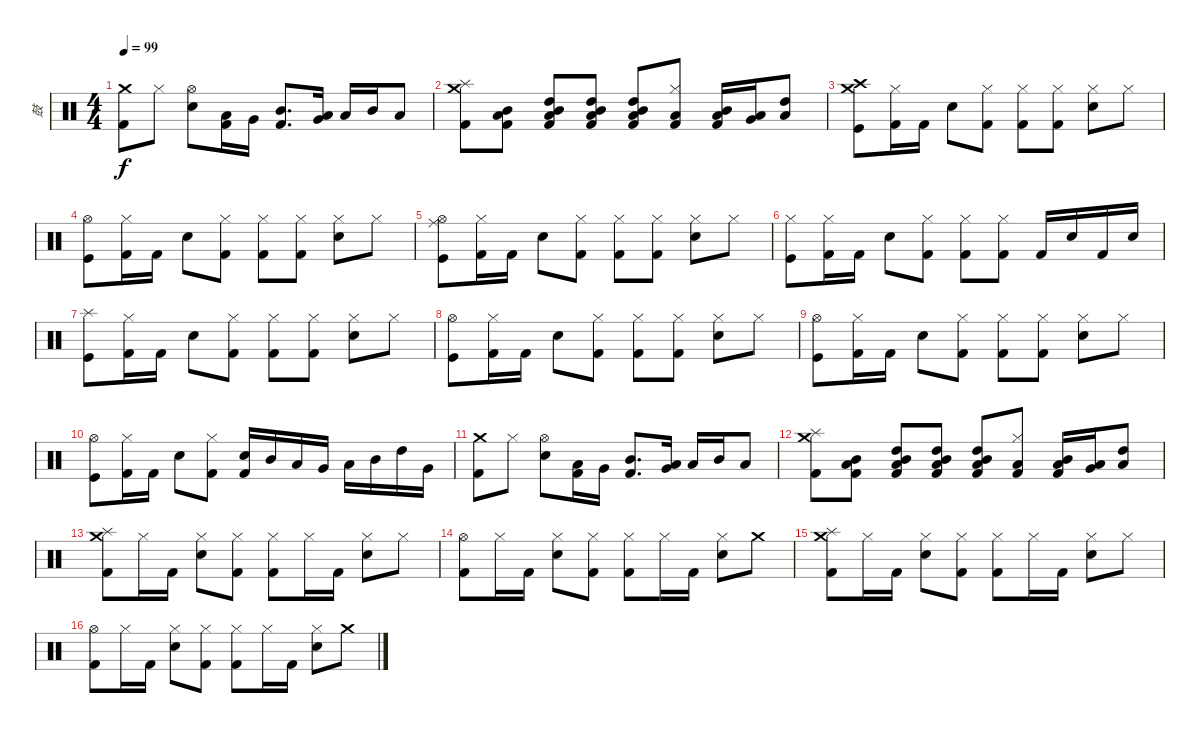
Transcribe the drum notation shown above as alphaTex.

\track ("鼓" "鼓") {instrument percussion}
\staff {score}
\articulation defaults
\ts (4 4)
\tempo 99
\clef neutral
\ks c
("Crash medium (hit)" "Kick (hit) 2").8{dy f} "Hi-Hat (closed)".8 ("Hi-Hat (open)" "Electric Snare (hit)").8 ("Low Tom (hit)" "Kick (hit) 2").16 "Very Low Tom (hit)".16 ("Mid Tom (hit)" "Kick (hit) 2").8{d} ("Very Low Tom (hit)" "Low Tom (hit)").16 "Low Tom (hit)".16 "Mid Tom (hit)".16 "Low Floor Tom (hit)".8 |
("Splash (hit)" "Crash medium (hit)" "Kick (hit) 2").8 ("Mid Tom (hit)" "Low Tom (hit)" "Kick (hit) 2").8 ("Mid Tom (hit)" "High Tom (hit)" "Low Tom (hit)" "Kick (hit) 2").8 ("Mid Tom (hit)" "High Tom (hit)" "Low Tom (hit)" "Kick (hit) 2").8 ("Mid Tom (hit)" "High Tom (hit)" "Low Tom (hit)" "Kick (hit) 2").8 ("Hi-Hat (closed)" "Low Tom (hit)" "Kick (hit) 2").8 ("Mid Tom (hit)" "Low Tom (hit)" "Kick (hit) 2").16 ("Low Tom (hit)" "Very Low Tom (hit)").16 ("High Tom (hit)" "Low Floor Tom (hit)").8 |
("Crash medium (hit)" "Crash high (hit)" "Kick (hit)").8 ("Hi-Hat (closed)" "Kick (hit) 2").16 "Kick (hit) 2".16 "Electric Snare (hit)".8 ("Hi-Hat (closed)" "Kick (hit) 2").8 ("Hi-Hat (closed)" "Kick (hit) 2").8 ("Hi-Hat (closed)" "Kick (hit) 2").8 ("Hi-Hat (closed)" "Electric Snare (hit)").8 "Hi-Hat (closed)".8 |
("Hi-Hat (open)" "Kick (hit)").8 ("Hi-Hat (closed)" "Kick (hit) 2").16 "Kick (hit) 2".16 "Electric Snare (hit)".8 ("Hi-Hat (closed)" "Kick (hit) 2").8 ("Hi-Hat (closed)" "Kick (hit) 2").8 ("Hi-Hat (closed)" "Kick (hit) 2").8 ("Hi-Hat (closed)" "Electric Snare (hit)").8 "Hi-Hat (closed)".8 |
("Ride (middle)" "Hi-Hat (open)" "Kick (hit)").8 ("Hi-Hat (closed)" "Kick (hit) 2").16 "Kick (hit) 2".16 "Electric Snare (hit)".8 ("Hi-Hat (closed)" "Kick (hit) 2").8 ("Hi-Hat (closed)" "Kick (hit) 2").8 ("Hi-Hat (closed)" "Kick (hit) 2").8 ("Hi-Hat (closed)" "Electric Snare (hit)").8 "Hi-Hat (closed)".8 |
("Hi-Hat (closed)" "Kick (hit)").8 ("Hi-Hat (closed)" "Kick (hit) 2").16 "Kick (hit) 2".16 "Electric Snare (hit)".8 ("Hi-Hat (closed)" "Kick (hit) 2").8 ("Hi-Hat (closed)" "Kick (hit) 2").8 ("Hi-Hat (closed)" "Kick (hit) 2").8 "Kick (hit) 2".16 "Electric Snare (hit)".16 "Kick (hit) 2".16 "Electric Snare (hit)".16 |
("Splash (hit)" "Kick (hit)").8 ("Hi-Hat (closed)" "Kick (hit) 2").16 "Kick (hit) 2".16 "Electric Snare (hit)".8 ("Hi-Hat (closed)" "Kick (hit) 2").8 ("Hi-Hat (closed)" "Kick (hit) 2").8 ("Hi-Hat (closed)" "Kick (hit) 2").8 ("Hi-Hat (closed)" "Electric Snare (hit)").8 "Hi-Hat (closed)".8 |
("Hi-Hat (open)" "Kick (hit)").8 ("Hi-Hat (closed)" "Kick (hit) 2").16 "Kick (hit) 2".16 "Electric Snare (hit)".8 ("Hi-Hat (closed)" "Kick (hit) 2").8 ("Hi-Hat (closed)" "Kick (hit) 2").8 ("Hi-Hat (closed)" "Kick (hit) 2").8 ("Hi-Hat (closed)" "Electric Snare (hit)").8 "Hi-Hat (closed)".8 |
("Hi-Hat (open)" "Kick (hit)").8 ("Hi-Hat (closed)" "Kick (hit) 2").16 "Kick (hit) 2".16 "Electric Snare (hit)".8 ("Hi-Hat (closed)" "Kick (hit) 2").8 ("Hi-Hat (closed)" "Kick (hit) 2").8 ("Hi-Hat (closed)" "Kick (hit) 2").8 ("Hi-Hat (closed)" "Electric Snare (hit)").8 "Hi-Hat (closed)".8 |
("Hi-Hat (open)" "Kick (hit)").8 ("Hi-Hat (closed)" "Kick (hit) 2").16 "Kick (hit) 2".16 "Electric Snare (hit)".8 ("Hi-Hat (closed)" "Kick (hit) 2").8 ("Electric Snare (hit)" "Kick (hit) 2").16 "Mid Tom (hit)".16 "Low Tom (hit)".16 "Very Low Tom (hit)".16 "Low Tom (hit)".16 "Mid Tom (hit)".16 "High Tom (hit)".16 "Very Low Tom (hit)".16 |
("Crash medium (hit)" "Kick (hit) 2").8 "Hi-Hat (closed)".8 ("Hi-Hat (open)" "Electric Snare (hit)").8 ("Low Tom (hit)" "Kick (hit) 2").16 "Very Low Tom (hit)".16 ("Mid Tom (hit)" "Kick (hit) 2").8{d} ("Very Low Tom (hit)" "Low Tom (hit)").16 "Low Tom (hit)".16 "Mid Tom (hit)".16 "Low Floor Tom (hit)".8 |
("Splash (hit)" "Crash medium (hit)" "Kick (hit) 2").8 ("Mid Tom (hit)" "Low Tom (hit)" "Kick (hit) 2").8 ("Mid Tom (hit)" "High Tom (hit)" "Low Tom (hit)" "Kick (hit) 2").8 ("Mid Tom (hit)" "High Tom (hit)" "Low Tom (hit)" "Kick (hit) 2").8 ("Mid Tom (hit)" "High Tom (hit)" "Low Tom (hit)" "Kick (hit) 2").8 ("Hi-Hat (closed)" "Low Tom (hit)" "Kick (hit) 2").8 ("Mid Tom (hit)" "Low Tom (hit)" "Kick (hit) 2").16 ("Low Tom (hit)" "Very Low Tom (hit)").16 ("High Tom (hit)" "Low Floor Tom (hit)").8 |
("Splash (hit)" "Crash medium (hit)" "Kick (hit) 2").8 "Hi-Hat (closed)".16 "Kick (hit) 2".16 ("Hi-Hat (closed)" "Electric Snare (hit)").8 ("Hi-Hat (closed)" "Kick (hit) 2").8 ("Hi-Hat (closed)" "Kick (hit) 2").8 "Hi-Hat (closed)".16 "Kick (hit) 2".16 ("Hi-Hat (closed)" "Electric Snare (hit)").8 "Hi-Hat (closed)".8 |
("Hi-Hat (open)" "Kick (hit) 2").8 "Hi-Hat (closed)".16 "Kick (hit) 2".16 ("Hi-Hat (closed)" "Electric Snare (hit)").8 ("Hi-Hat (closed)" "Kick (hit) 2").8 ("Hi-Hat (closed)" "Kick (hit) 2").8 "Hi-Hat (closed)".16 "Kick (hit) 2".16 ("Hi-Hat (closed)" "Electric Snare (hit)").8 "Crash medium (hit)".8 |
("Splash (hit)" "Crash medium (hit)" "Kick (hit) 2").8 "Hi-Hat (closed)".16 "Kick (hit) 2".16 ("Hi-Hat (closed)" "Electric Snare (hit)").8 ("Hi-Hat (closed)" "Kick (hit) 2").8 ("Hi-Hat (closed)" "Kick (hit) 2").8 "Hi-Hat (closed)".16 "Kick (hit) 2".16 ("Hi-Hat (closed)" "Electric Snare (hit)").8 "Hi-Hat (closed)".8 |
("Hi-Hat (open)" "Kick (hit) 2").8 "Hi-Hat (closed)".16 "Kick (hit) 2".16 ("Hi-Hat (closed)" "Electric Snare (hit)").8 ("Hi-Hat (closed)" "Kick (hit) 2").8 ("Hi-Hat (closed)" "Kick (hit) 2").8 "Hi-Hat (closed)".16 "Kick (hit) 2".16 ("Hi-Hat (closed)" "Electric Snare (hit)").8 "Crash medium (hit)".8
